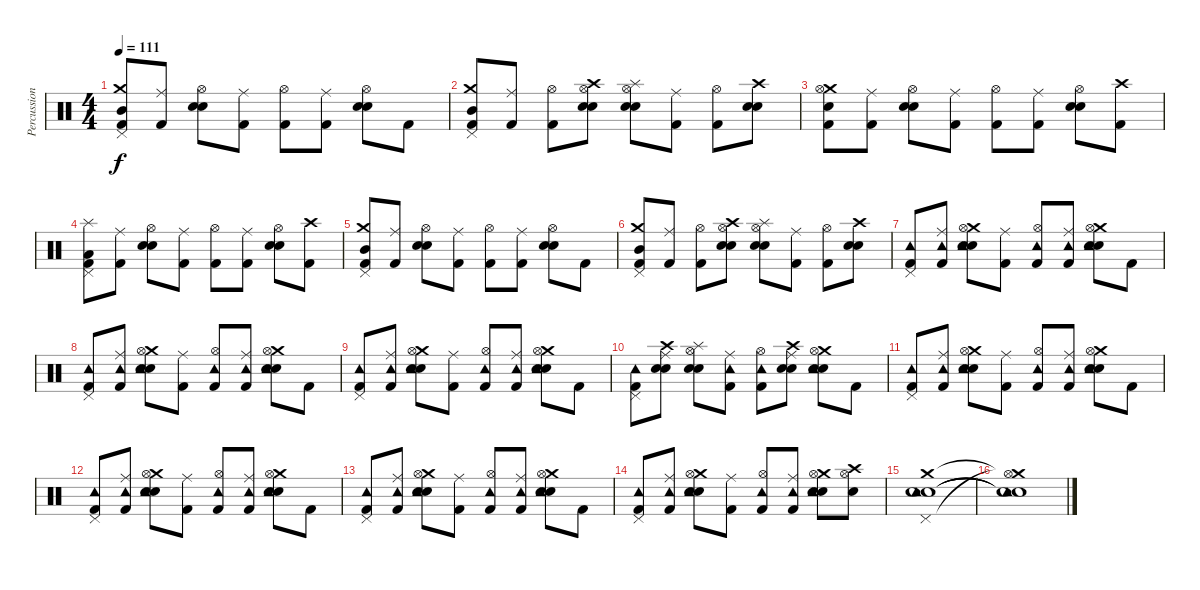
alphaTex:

\track ("Percussion" "Percussion") {instrument percussion}
\staff {score}
\articulation defaults
\ts (4 4)
\tempo 111
\clef neutral
\ks c
("Kick (hit) 2" "Mid Tom (hit)" "Crash medium (hit)" "Pedal Hi-Hat (hit)").8{dy f} ("Kick (hit) 2" "Ride (middle)").8 ("Snare (hit) 2" "Electric Snare (hit)" "Hi-Hat (open)").8 ("Kick (hit) 2" "Ride (middle)").8 ("Kick (hit) 2" "Hi-Hat (open)").8 ("Kick (hit) 2" "Ride (middle)").8 ("Snare (hit) 2" "Electric Snare (hit)" "Hi-Hat (open)").8 "Kick (hit) 2".8 |
("Kick (hit) 2" "Mid Tom (hit)" "Crash medium (hit)" "Pedal Hi-Hat (hit)").8 ("Kick (hit) 2" "Ride (middle)").8 ("Kick (hit) 2" "Hi-Hat (open)").8 ("Snare (hit) 2" "Electric Snare (hit)" "Crash high (hit)" "Hi-Hat (open)").8 ("Snare (hit) 2" "Electric Snare (hit)" "Splash (hit)" "Hi-Hat (open)").8 ("Kick (hit) 2" "Ride (middle)").8 ("Kick (hit) 2" "Hi-Hat (open)").8 ("Snare (hit) 2" "Electric Snare (hit)" "Crash high (hit)").8 |
("Kick (hit) 2" "Electric Snare (hit)" "Crash medium (hit)" "Hi-Hat (open)").8 ("Kick (hit) 2" "Ride (middle)").8 ("Snare (hit) 2" "Electric Snare (hit)" "Hi-Hat (open)").8 ("Kick (hit) 2" "Ride (middle)").8 ("Kick (hit) 2" "Hi-Hat (open)").8 ("Kick (hit) 2" "Ride (middle)").8 ("Snare (hit) 2" "Electric Snare (hit)" "Hi-Hat (open)").8 ("Kick (hit) 2" "Crash high (hit)").8 |
("Kick (hit) 2" "Low Tom (hit)" "Splash (hit)" "Pedal Hi-Hat (hit)").8 ("Kick (hit) 2" "Ride (middle)").8 ("Snare (hit) 2" "Electric Snare (hit)" "Hi-Hat (open)").8 ("Kick (hit) 2" "Ride (middle)").8 ("Kick (hit) 2" "Hi-Hat (open)").8 ("Kick (hit) 2" "Ride (middle)").8 ("Snare (hit) 2" "Electric Snare (hit)" "Hi-Hat (open)").8 ("Kick (hit) 2" "Crash high (hit)").8 |
("Kick (hit) 2" "Mid Tom (hit)" "Crash medium (hit)" "Pedal Hi-Hat (hit)").8 ("Kick (hit) 2" "Ride (middle)").8 ("Snare (hit) 2" "Electric Snare (hit)" "Hi-Hat (open)").8 ("Kick (hit) 2" "Ride (middle)").8 ("Kick (hit) 2" "Hi-Hat (open)").8 ("Kick (hit) 2" "Ride (middle)").8 ("Snare (hit) 2" "Electric Snare (hit)" "Hi-Hat (open)").8 "Kick (hit) 2".8 |
("Kick (hit) 2" "Mid Tom (hit)" "Crash medium (hit)" "Pedal Hi-Hat (hit)").8 ("Kick (hit) 2" "Ride (middle)").8 ("Kick (hit) 2" "Hi-Hat (open)").8 ("Snare (hit) 2" "Electric Snare (hit)" "Crash high (hit)" "Hi-Hat (open)").8 ("Snare (hit) 2" "Electric Snare (hit)" "Splash (hit)" "Hi-Hat (open)").8 ("Kick (hit) 2" "Ride (middle)").8 ("Kick (hit) 2" "Hi-Hat (open)").8 ("Snare (hit) 2" "Electric Snare (hit)" "Crash high (hit)").8 |
("Kick (hit) 2" "Pedal Hi-Hat (hit)" "Tambourine (hit)").8 ("Kick (hit) 2" "Ride (middle)" "Tambourine (hit)").8 ("Snare (hit) 2" "Electric Snare (hit)" "Crash medium (hit)" "Hi-Hat (open)" "Tambourine (hit)").8 ("Kick (hit) 2" "Ride (middle)").8 ("Kick (hit) 2" "Hi-Hat (open)" "Tambourine (hit)").8 ("Kick (hit) 2" "Ride (middle)" "Tambourine (hit)").8 ("Snare (hit) 2" "Electric Snare (hit)" "Crash medium (hit)" "Hi-Hat (open)" "Tambourine (hit)").8 "Kick (hit) 2".8 |
("Kick (hit) 2" "Pedal Hi-Hat (hit)" "Tambourine (hit)").8 ("Kick (hit) 2" "Ride (middle)" "Tambourine (hit)").8 ("Snare (hit) 2" "Electric Snare (hit)" "Crash medium (hit)" "Hi-Hat (open)" "Tambourine (hit)").8 ("Kick (hit) 2" "Ride (middle)").8 ("Kick (hit) 2" "Hi-Hat (open)" "Tambourine (hit)").8 ("Kick (hit) 2" "Ride (middle)" "Tambourine (hit)").8 ("Snare (hit) 2" "Electric Snare (hit)" "Crash medium (hit)" "Hi-Hat (open)" "Tambourine (hit)").8 "Kick (hit) 2".8 |
("Kick (hit) 2" "Pedal Hi-Hat (hit)" "Tambourine (hit)").8 ("Kick (hit) 2" "Ride (middle)" "Tambourine (hit)").8 ("Snare (hit) 2" "Electric Snare (hit)" "Crash medium (hit)" "Hi-Hat (open)" "Tambourine (hit)").8 ("Kick (hit) 2" "Ride (middle)").8 ("Kick (hit) 2" "Hi-Hat (open)" "Tambourine (hit)").8 ("Kick (hit) 2" "Ride (middle)" "Tambourine (hit)").8 ("Snare (hit) 2" "Electric Snare (hit)" "Crash medium (hit)" "Hi-Hat (open)" "Tambourine (hit)").8 "Kick (hit) 2".8 |
("Kick (hit) 2" "Pedal Hi-Hat (hit)" "Tambourine (hit)").8 ("Snare (hit) 2" "Electric Snare (hit)" "Crash high (hit)" "Ride (middle)").8 ("Snare (hit) 2" "Electric Snare (hit)" "Splash (hit)" "Hi-Hat (open)").8 ("Kick (hit) 2" "Ride (middle)" "Tambourine (hit)").8 ("Kick (hit) 2" "Hi-Hat (open)" "Tambourine (hit)").8 ("Snare (hit) 2" "Electric Snare (hit)" "Crash high (hit)" "Ride (middle)").8 ("Snare (hit) 2" "Electric Snare (hit)" "Crash medium (hit)" "Hi-Hat (open)" "Tambourine (hit)").8 "Kick (hit) 2".8 |
("Kick (hit) 2" "Pedal Hi-Hat (hit)" "Tambourine (hit)").8 ("Kick (hit) 2" "Ride (middle)" "Tambourine (hit)").8 ("Snare (hit) 2" "Electric Snare (hit)" "Crash medium (hit)" "Hi-Hat (open)" "Tambourine (hit)").8 ("Kick (hit) 2" "Ride (middle)").8 ("Kick (hit) 2" "Hi-Hat (open)" "Tambourine (hit)").8 ("Kick (hit) 2" "Ride (middle)" "Tambourine (hit)").8 ("Snare (hit) 2" "Electric Snare (hit)" "Crash medium (hit)" "Hi-Hat (open)" "Tambourine (hit)").8 "Kick (hit) 2".8 |
("Kick (hit) 2" "Pedal Hi-Hat (hit)" "Tambourine (hit)").8 ("Kick (hit) 2" "Ride (middle)" "Tambourine (hit)").8 ("Snare (hit) 2" "Electric Snare (hit)" "Crash medium (hit)" "Hi-Hat (open)" "Tambourine (hit)").8 ("Kick (hit) 2" "Ride (middle)").8 ("Kick (hit) 2" "Hi-Hat (open)" "Tambourine (hit)").8 ("Kick (hit) 2" "Ride (middle)" "Tambourine (hit)").8 ("Snare (hit) 2" "Electric Snare (hit)" "Crash medium (hit)" "Hi-Hat (open)" "Tambourine (hit)").8 "Kick (hit) 2".8 |
("Kick (hit) 2" "Pedal Hi-Hat (hit)" "Tambourine (hit)").8 ("Kick (hit) 2" "Ride (middle)" "Tambourine (hit)").8 ("Snare (hit) 2" "Electric Snare (hit)" "Crash medium (hit)" "Hi-Hat (open)" "Tambourine (hit)").8 ("Kick (hit) 2" "Ride (middle)").8 ("Kick (hit) 2" "Hi-Hat (open)" "Tambourine (hit)").8 ("Kick (hit) 2" "Ride (middle)" "Tambourine (hit)").8 ("Snare (hit) 2" "Electric Snare (hit)" "Crash medium (hit)" "Hi-Hat (open)" "Tambourine (hit)").8 "Kick (hit) 2".8 |
("Kick (hit) 2" "Pedal Hi-Hat (hit)" "Tambourine (hit)").8 ("Kick (hit) 2" "Ride (middle)" "Tambourine (hit)").8 ("Snare (hit) 2" "Electric Snare (hit)" "Crash medium (hit)" "Hi-Hat (open)" "Tambourine (hit)").8 ("Kick (hit) 2" "Ride (middle)").8 ("Kick (hit) 2" "Hi-Hat (open)" "Tambourine (hit)").8 ("Kick (hit) 2" "Ride (middle)" "Tambourine (hit)").8 ("Snare (hit) 2" "Electric Snare (hit)" "Crash medium (hit)" "Hi-Hat (open)" "Tambourine (hit)").8 ("Snare (hit) 2" "Crash high (hit)" "Hi-Hat (open)").8 |
("Snare (hit) 2" "Electric Snare (hit)" "Crash medium (hit)" "Pedal Hi-Hat (hit)" "Tambourine (hit)").1 |
("Snare (hit) 2"{t} "Electric Snare (hit)"{t} "Crash medium (hit)"{t} "Hi-Hat (open)"{t} "Tambourine (hit)"{t}).1
